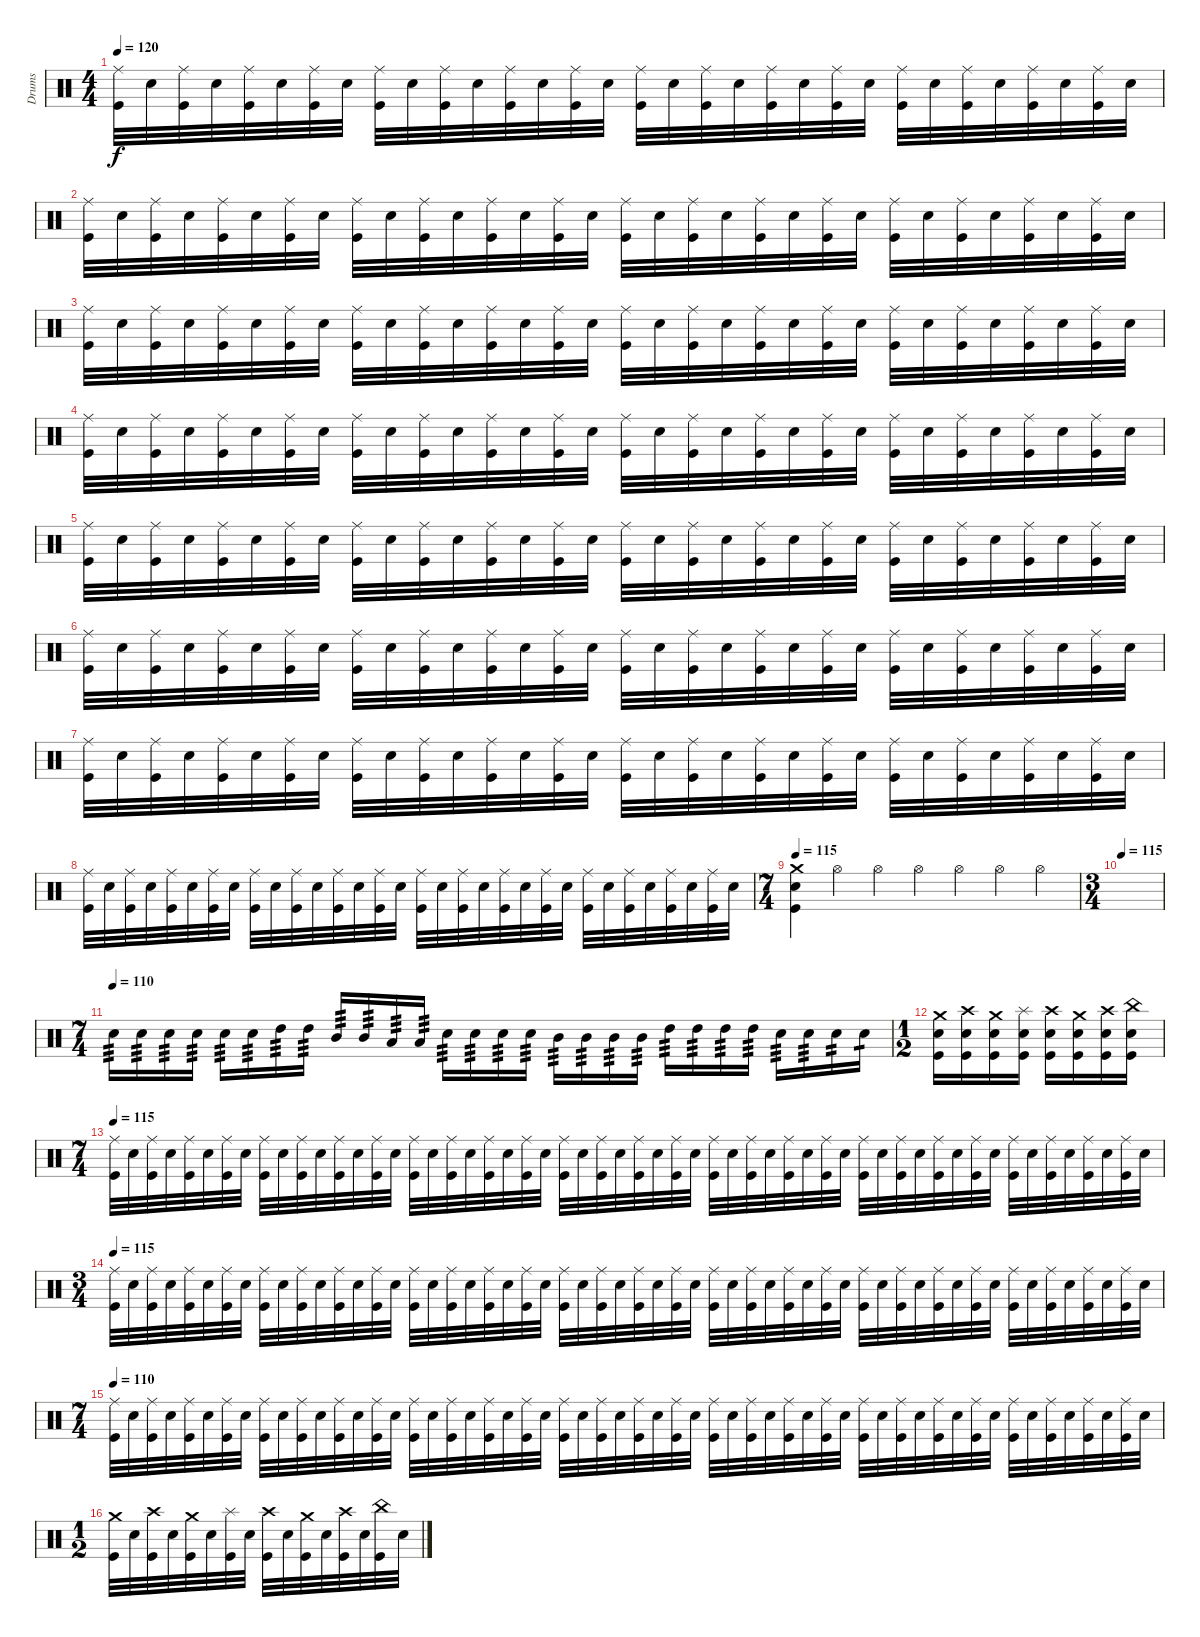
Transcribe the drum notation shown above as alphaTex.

\track ("Drums" "Drums") {instrument percussion}
\staff {score}
\articulation defaults
\ts (4 4)
\tempo 120
\clef neutral
\ks c
("Ride (middle)" "Kick (hit)").32{dy f} "Electric Snare (hit)".32 ("Ride (middle)" "Kick (hit)").32 "Electric Snare (hit)".32 ("Ride (middle)" "Kick (hit)").32 "Electric Snare (hit)".32 ("Ride (middle)" "Kick (hit)").32 "Electric Snare (hit)".32 ("Ride (middle)" "Kick (hit)").32 "Electric Snare (hit)".32 ("Ride (middle)" "Kick (hit)").32 "Electric Snare (hit)".32 ("Ride (middle)" "Kick (hit)").32 "Electric Snare (hit)".32 ("Ride (middle)" "Kick (hit)").32 "Electric Snare (hit)".32 ("Ride (middle)" "Kick (hit)").32 "Electric Snare (hit)".32 ("Ride (middle)" "Kick (hit)").32 "Electric Snare (hit)".32 ("Ride (middle)" "Kick (hit)").32 "Electric Snare (hit)".32 ("Ride (middle)" "Kick (hit)").32 "Electric Snare (hit)".32 ("Ride (middle)" "Kick (hit)").32 "Electric Snare (hit)".32 ("Ride (middle)" "Kick (hit)").32 "Electric Snare (hit)".32 ("Ride (middle)" "Kick (hit)").32 "Electric Snare (hit)".32 ("Ride (middle)" "Kick (hit)").32 "Electric Snare (hit)".32 |
("Ride (middle)" "Kick (hit)").32 "Electric Snare (hit)".32 ("Ride (middle)" "Kick (hit)").32 "Electric Snare (hit)".32 ("Ride (middle)" "Kick (hit)").32 "Electric Snare (hit)".32 ("Ride (middle)" "Kick (hit)").32 "Electric Snare (hit)".32 ("Ride (middle)" "Kick (hit)").32 "Electric Snare (hit)".32 ("Ride (middle)" "Kick (hit)").32 "Electric Snare (hit)".32 ("Ride (middle)" "Kick (hit)").32 "Electric Snare (hit)".32 ("Ride (middle)" "Kick (hit)").32 "Electric Snare (hit)".32 ("Ride (middle)" "Kick (hit)").32 "Electric Snare (hit)".32 ("Ride (middle)" "Kick (hit)").32 "Electric Snare (hit)".32 ("Ride (middle)" "Kick (hit)").32 "Electric Snare (hit)".32 ("Ride (middle)" "Kick (hit)").32 "Electric Snare (hit)".32 ("Ride (middle)" "Kick (hit)").32 "Electric Snare (hit)".32 ("Ride (middle)" "Kick (hit)").32 "Electric Snare (hit)".32 ("Ride (middle)" "Kick (hit)").32 "Electric Snare (hit)".32 ("Ride (middle)" "Kick (hit)").32 "Electric Snare (hit)".32 |
("Ride (middle)" "Kick (hit)").32 "Electric Snare (hit)".32 ("Ride (middle)" "Kick (hit)").32 "Electric Snare (hit)".32 ("Ride (middle)" "Kick (hit)").32 "Electric Snare (hit)".32 ("Ride (middle)" "Kick (hit)").32 "Electric Snare (hit)".32 ("Ride (middle)" "Kick (hit)").32 "Electric Snare (hit)".32 ("Ride (middle)" "Kick (hit)").32 "Electric Snare (hit)".32 ("Ride (middle)" "Kick (hit)").32 "Electric Snare (hit)".32 ("Ride (middle)" "Kick (hit)").32 "Electric Snare (hit)".32 ("Ride (middle)" "Kick (hit)").32 "Electric Snare (hit)".32 ("Ride (middle)" "Kick (hit)").32 "Electric Snare (hit)".32 ("Ride (middle)" "Kick (hit)").32 "Electric Snare (hit)".32 ("Ride (middle)" "Kick (hit)").32 "Electric Snare (hit)".32 ("Ride (middle)" "Kick (hit)").32 "Electric Snare (hit)".32 ("Ride (middle)" "Kick (hit)").32 "Electric Snare (hit)".32 ("Ride (middle)" "Kick (hit)").32 "Electric Snare (hit)".32 ("Ride (middle)" "Kick (hit)").32 "Electric Snare (hit)".32 |
("Ride (middle)" "Kick (hit)").32 "Electric Snare (hit)".32 ("Ride (middle)" "Kick (hit)").32 "Electric Snare (hit)".32 ("Ride (middle)" "Kick (hit)").32 "Electric Snare (hit)".32 ("Ride (middle)" "Kick (hit)").32 "Electric Snare (hit)".32 ("Ride (middle)" "Kick (hit)").32 "Electric Snare (hit)".32 ("Ride (middle)" "Kick (hit)").32 "Electric Snare (hit)".32 ("Ride (middle)" "Kick (hit)").32 "Electric Snare (hit)".32 ("Ride (middle)" "Kick (hit)").32 "Electric Snare (hit)".32 ("Ride (middle)" "Kick (hit)").32 "Electric Snare (hit)".32 ("Ride (middle)" "Kick (hit)").32 "Electric Snare (hit)".32 ("Ride (middle)" "Kick (hit)").32 "Electric Snare (hit)".32 ("Ride (middle)" "Kick (hit)").32 "Electric Snare (hit)".32 ("Ride (middle)" "Kick (hit)").32 "Electric Snare (hit)".32 ("Ride (middle)" "Kick (hit)").32 "Electric Snare (hit)".32 ("Ride (middle)" "Kick (hit)").32 "Electric Snare (hit)".32 ("Ride (middle)" "Kick (hit)").32 "Electric Snare (hit)".32 |
("Ride (middle)" "Kick (hit)").32 "Electric Snare (hit)".32 ("Ride (middle)" "Kick (hit)").32 "Electric Snare (hit)".32 ("Ride (middle)" "Kick (hit)").32 "Electric Snare (hit)".32 ("Ride (middle)" "Kick (hit)").32 "Electric Snare (hit)".32 ("Ride (middle)" "Kick (hit)").32 "Electric Snare (hit)".32 ("Ride (middle)" "Kick (hit)").32 "Electric Snare (hit)".32 ("Ride (middle)" "Kick (hit)").32 "Electric Snare (hit)".32 ("Ride (middle)" "Kick (hit)").32 "Electric Snare (hit)".32 ("Ride (middle)" "Kick (hit)").32 "Electric Snare (hit)".32 ("Ride (middle)" "Kick (hit)").32 "Electric Snare (hit)".32 ("Ride (middle)" "Kick (hit)").32 "Electric Snare (hit)".32 ("Ride (middle)" "Kick (hit)").32 "Electric Snare (hit)".32 ("Ride (middle)" "Kick (hit)").32 "Electric Snare (hit)".32 ("Ride (middle)" "Kick (hit)").32 "Electric Snare (hit)".32 ("Ride (middle)" "Kick (hit)").32 "Electric Snare (hit)".32 ("Ride (middle)" "Kick (hit)").32 "Electric Snare (hit)".32 |
("Ride (middle)" "Kick (hit)").32 "Electric Snare (hit)".32 ("Ride (middle)" "Kick (hit)").32 "Electric Snare (hit)".32 ("Ride (middle)" "Kick (hit)").32 "Electric Snare (hit)".32 ("Ride (middle)" "Kick (hit)").32 "Electric Snare (hit)".32 ("Ride (middle)" "Kick (hit)").32 "Electric Snare (hit)".32 ("Ride (middle)" "Kick (hit)").32 "Electric Snare (hit)".32 ("Ride (middle)" "Kick (hit)").32 "Electric Snare (hit)".32 ("Ride (middle)" "Kick (hit)").32 "Electric Snare (hit)".32 ("Ride (middle)" "Kick (hit)").32 "Electric Snare (hit)".32 ("Ride (middle)" "Kick (hit)").32 "Electric Snare (hit)".32 ("Ride (middle)" "Kick (hit)").32 "Electric Snare (hit)".32 ("Ride (middle)" "Kick (hit)").32 "Electric Snare (hit)".32 ("Ride (middle)" "Kick (hit)").32 "Electric Snare (hit)".32 ("Ride (middle)" "Kick (hit)").32 "Electric Snare (hit)".32 ("Ride (middle)" "Kick (hit)").32 "Electric Snare (hit)".32 ("Ride (middle)" "Kick (hit)").32 "Electric Snare (hit)".32 |
("Ride (middle)" "Kick (hit)").32 "Electric Snare (hit)".32 ("Ride (middle)" "Kick (hit)").32 "Electric Snare (hit)".32 ("Ride (middle)" "Kick (hit)").32 "Electric Snare (hit)".32 ("Ride (middle)" "Kick (hit)").32 "Electric Snare (hit)".32 ("Ride (middle)" "Kick (hit)").32 "Electric Snare (hit)".32 ("Ride (middle)" "Kick (hit)").32 "Electric Snare (hit)".32 ("Ride (middle)" "Kick (hit)").32 "Electric Snare (hit)".32 ("Ride (middle)" "Kick (hit)").32 "Electric Snare (hit)".32 ("Ride (middle)" "Kick (hit)").32 "Electric Snare (hit)".32 ("Ride (middle)" "Kick (hit)").32 "Electric Snare (hit)".32 ("Ride (middle)" "Kick (hit)").32 "Electric Snare (hit)".32 ("Ride (middle)" "Kick (hit)").32 "Electric Snare (hit)".32 ("Ride (middle)" "Kick (hit)").32 "Electric Snare (hit)".32 ("Ride (middle)" "Kick (hit)").32 "Electric Snare (hit)".32 ("Ride (middle)" "Kick (hit)").32 "Electric Snare (hit)".32 ("Ride (middle)" "Kick (hit)").32 "Electric Snare (hit)".32 |
("Ride (middle)" "Kick (hit)").32 "Electric Snare (hit)".32 ("Ride (middle)" "Kick (hit)").32 "Electric Snare (hit)".32 ("Ride (middle)" "Kick (hit)").32 "Electric Snare (hit)".32 ("Ride (middle)" "Kick (hit)").32 "Electric Snare (hit)".32 ("Ride (middle)" "Kick (hit)").32 "Electric Snare (hit)".32 ("Ride (middle)" "Kick (hit)").32 "Electric Snare (hit)".32 ("Ride (middle)" "Kick (hit)").32 "Electric Snare (hit)".32 ("Ride (middle)" "Kick (hit)").32 "Electric Snare (hit)".32 ("Ride (middle)" "Kick (hit)").32 "Electric Snare (hit)".32 ("Ride (middle)" "Kick (hit)").32 "Electric Snare (hit)".32 ("Ride (middle)" "Kick (hit)").32 "Electric Snare (hit)".32 ("Ride (middle)" "Kick (hit)").32 "Electric Snare (hit)".32 ("Ride (middle)" "Kick (hit)").32 "Electric Snare (hit)".32 ("Ride (middle)" "Kick (hit)").32 "Electric Snare (hit)".32 ("Ride (middle)" "Kick (hit)").32 "Electric Snare (hit)".32 ("Ride (middle)" "Kick (hit)").32 "Electric Snare (hit)".32 |
\ts (7 4)
\tempo 115
("Crash medium (hit)" "Electric Snare (hit)" "Kick (hit)").4{volume 10} "Hi-Hat (open)".4 "Hi-Hat (open)".4 "Hi-Hat (open)".4 "Hi-Hat (open)".4 "Hi-Hat (open)".4 "Hi-Hat (open)".4 |
\ts (3 4)
\tempo 115
|
\ts (7 4)
\tempo (110)
"Electric Snare (hit)".16{tp 3 volume 13} "Electric Snare (hit)".16{tp 3} "Electric Snare (hit)".16{tp 3} "Electric Snare (hit)".16{tp 3} "Electric Snare (hit)".16{tp 3} "Electric Snare (hit)".16{tp 3} "High Tom (hit)".16{tp 3} "High Tom (hit)".16{tp 3} "Mid Tom (hit)".16{tp 3} "Mid Tom (hit)".16{tp 3} "Low Tom (hit)".16{tp 3} "Low Tom (hit)".16{tp 3} "Electric Snare (hit)".16{tp 3} "Electric Snare (hit)".16{tp 3} "Electric Snare (hit)".16{tp 3} "Electric Snare (hit)".16{tp 3} "Mid Tom (hit)".16{tp 3} "Mid Tom (hit)".16{tp 3} "Mid Tom (hit)".16{tp 3} "Mid Tom (hit)".16{tp 3} "High Tom (hit)".16{tp 3} "High Tom (hit)".16{tp 3} "High Tom (hit)".16{tp 3} "High Tom (hit)".16{tp 3} "Electric Snare (hit)".16{tp 3} "Electric Snare (hit)".16{tp 3} "Electric Snare (hit)".16{tp 2} "Electric Snare (hit)".16{tp 1} |
\ts (1 2)
("Crash medium (hit)" "Electric Snare (hit)" "Kick (hit)").16 ("Crash high (hit)" "Electric Snare (hit)" "Kick (hit)").16 ("Crash medium (hit)" "Electric Snare (hit)" "Kick (hit)").16 ("Splash (hit)" "Electric Snare (hit)" "Kick (hit)").16 ("Crash high (hit)" "Electric Snare (hit)" "Kick (hit)").16 ("Crash medium (hit)" "Electric Snare (hit)" "Kick (hit)").16 ("Crash high (hit)" "Electric Snare (hit)" "Kick (hit)").16 ("China (hit)" "Electric Snare (hit)" "Kick (hit)").16 |
\ts (7 4)
\tempo 115
("Ride (middle)" "Kick (hit)").32 "Electric Snare (hit)".32 ("Ride (middle)" "Kick (hit)").32 "Electric Snare (hit)".32 ("Ride (middle)" "Kick (hit)").32 "Electric Snare (hit)".32 ("Ride (middle)" "Kick (hit)").32 "Electric Snare (hit)".32 ("Ride (middle)" "Kick (hit)").32 "Electric Snare (hit)".32 ("Ride (middle)" "Kick (hit)").32 "Electric Snare (hit)".32 ("Ride (middle)" "Kick (hit)").32 "Electric Snare (hit)".32 ("Ride (middle)" "Kick (hit)").32 "Electric Snare (hit)".32 ("Ride (middle)" "Kick (hit)").32 "Electric Snare (hit)".32 ("Ride (middle)" "Kick (hit)").32 "Electric Snare (hit)".32 ("Ride (middle)" "Kick (hit)").32 "Electric Snare (hit)".32 ("Ride (middle)" "Kick (hit)").32 "Electric Snare (hit)".32 ("Ride (middle)" "Kick (hit)").32 "Electric Snare (hit)".32 ("Ride (middle)" "Kick (hit)").32 "Electric Snare (hit)".32 ("Ride (middle)" "Kick (hit)").32 "Electric Snare (hit)".32 ("Ride (middle)" "Kick (hit)").32 "Electric Snare (hit)".32 ("Ride (middle)" "Kick (hit)").32 "Electric Snare (hit)".32 ("Ride (middle)" "Kick (hit)").32 "Electric Snare (hit)".32 ("Ride (middle)" "Kick (hit)").32 "Electric Snare (hit)".32 ("Ride (middle)" "Kick (hit)").32 "Electric Snare (hit)".32 ("Ride (middle)" "Kick (hit)").32 "Electric Snare (hit)".32 ("Ride (middle)" "Kick (hit)").32 "Electric Snare (hit)".32 ("Ride (middle)" "Kick (hit)").32 "Electric Snare (hit)".32 ("Ride (middle)" "Kick (hit)").32 "Electric Snare (hit)".32 ("Ride (middle)" "Kick (hit)").32 "Electric Snare (hit)".32 ("Ride (middle)" "Kick (hit)").32 "Electric Snare (hit)".32 ("Ride (middle)" "Kick (hit)").32 "Electric Snare (hit)".32 ("Ride (middle)" "Kick (hit)").32 "Electric Snare (hit)".32 |
\ts (3 4)
\tempo 115
("Ride (middle)" "Kick (hit)").32 "Electric Snare (hit)".32 ("Ride (middle)" "Kick (hit)").32 "Electric Snare (hit)".32 ("Ride (middle)" "Kick (hit)").32 "Electric Snare (hit)".32 ("Ride (middle)" "Kick (hit)").32 "Electric Snare (hit)".32 ("Ride (middle)" "Kick (hit)").32 "Electric Snare (hit)".32 ("Ride (middle)" "Kick (hit)").32 "Electric Snare (hit)".32 ("Ride (middle)" "Kick (hit)").32 "Electric Snare (hit)".32 ("Ride (middle)" "Kick (hit)").32 "Electric Snare (hit)".32 ("Ride (middle)" "Kick (hit)").32 "Electric Snare (hit)".32 ("Ride (middle)" "Kick (hit)").32 "Electric Snare (hit)".32 ("Ride (middle)" "Kick (hit)").32 "Electric Snare (hit)".32 ("Ride (middle)" "Kick (hit)").32 "Electric Snare (hit)".32 ("Ride (middle)" "Kick (hit)").32 "Electric Snare (hit)".32 ("Ride (middle)" "Kick (hit)").32 "Electric Snare (hit)".32 ("Ride (middle)" "Kick (hit)").32 "Electric Snare (hit)".32 ("Ride (middle)" "Kick (hit)").32 "Electric Snare (hit)".32 ("Ride (middle)" "Kick (hit)").32 "Electric Snare (hit)".32 ("Ride (middle)" "Kick (hit)").32 "Electric Snare (hit)".32 ("Ride (middle)" "Kick (hit)").32 "Electric Snare (hit)".32 ("Ride (middle)" "Kick (hit)").32 "Electric Snare (hit)".32 ("Ride (middle)" "Kick (hit)").32 "Electric Snare (hit)".32 ("Ride (middle)" "Kick (hit)").32 "Electric Snare (hit)".32 ("Ride (middle)" "Kick (hit)").32 "Electric Snare (hit)".32 ("Ride (middle)" "Kick (hit)").32 "Electric Snare (hit)".32 ("Ride (middle)" "Kick (hit)").32 "Electric Snare (hit)".32 ("Ride (middle)" "Kick (hit)").32 "Electric Snare (hit)".32 ("Ride (middle)" "Kick (hit)").32 "Electric Snare (hit)".32 ("Ride (middle)" "Kick (hit)").32 "Electric Snare (hit)".32 |
\ts (7 4)
\tempo 110
("Ride (middle)" "Kick (hit)").32 "Electric Snare (hit)".32 ("Ride (middle)" "Kick (hit)").32 "Electric Snare (hit)".32 ("Ride (middle)" "Kick (hit)").32 "Electric Snare (hit)".32 ("Ride (middle)" "Kick (hit)").32 "Electric Snare (hit)".32 ("Ride (middle)" "Kick (hit)").32 "Electric Snare (hit)".32 ("Ride (middle)" "Kick (hit)").32 "Electric Snare (hit)".32 ("Ride (middle)" "Kick (hit)").32 "Electric Snare (hit)".32 ("Ride (middle)" "Kick (hit)").32 "Electric Snare (hit)".32 ("Ride (middle)" "Kick (hit)").32 "Electric Snare (hit)".32 ("Ride (middle)" "Kick (hit)").32 "Electric Snare (hit)".32 ("Ride (middle)" "Kick (hit)").32 "Electric Snare (hit)".32 ("Ride (middle)" "Kick (hit)").32 "Electric Snare (hit)".32 ("Ride (middle)" "Kick (hit)").32 "Electric Snare (hit)".32 ("Ride (middle)" "Kick (hit)").32 "Electric Snare (hit)".32 ("Ride (middle)" "Kick (hit)").32 "Electric Snare (hit)".32 ("Ride (middle)" "Kick (hit)").32 "Electric Snare (hit)".32 ("Ride (middle)" "Kick (hit)").32 "Electric Snare (hit)".32 ("Ride (middle)" "Kick (hit)").32 "Electric Snare (hit)".32 ("Ride (middle)" "Kick (hit)").32 "Electric Snare (hit)".32 ("Ride (middle)" "Kick (hit)").32 "Electric Snare (hit)".32 ("Ride (middle)" "Kick (hit)").32 "Electric Snare (hit)".32 ("Ride (middle)" "Kick (hit)").32 "Electric Snare (hit)".32 ("Ride (middle)" "Kick (hit)").32 "Electric Snare (hit)".32 ("Ride (middle)" "Kick (hit)").32 "Electric Snare (hit)".32 ("Ride (middle)" "Kick (hit)").32 "Electric Snare (hit)".32 ("Ride (middle)" "Kick (hit)").32 "Electric Snare (hit)".32 ("Ride (middle)" "Kick (hit)").32 "Electric Snare (hit)".32 ("Ride (middle)" "Kick (hit)").32 "Electric Snare (hit)".32 |
\ts (1 2)
("Crash medium (hit)" "Kick (hit)").32 "Electric Snare (hit)".32 ("Crash high (hit)" "Kick (hit)").32 "Electric Snare (hit)".32 ("Crash medium (hit)" "Kick (hit)").32 "Electric Snare (hit)".32 ("Splash (hit)" "Kick (hit)").32 "Electric Snare (hit)".32 ("Crash high (hit)" "Kick (hit)").32 "Electric Snare (hit)".32 ("Crash medium (hit)" "Kick (hit)").32 "Electric Snare (hit)".32 ("Crash high (hit)" "Kick (hit)").32 "Electric Snare (hit)".32 ("China (hit)" "Kick (hit)").32 "Electric Snare (hit)".32
